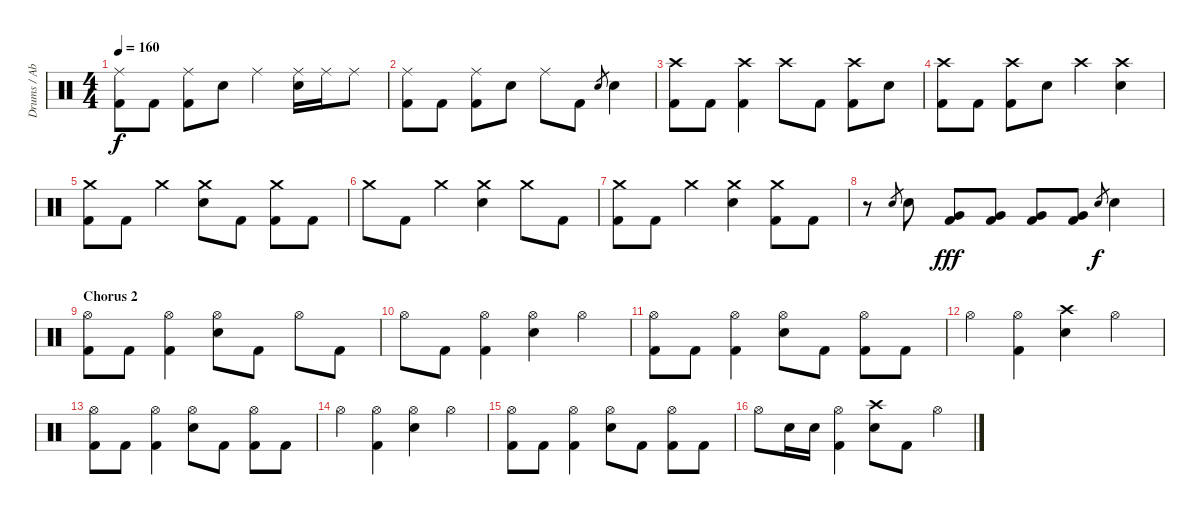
\track ("Drums / Abe Cunningham" "Drums / Ab") {instrument percussion}
\staff {score}
\articulation defaults
\ts (4 4)
\tempo 160
\clef neutral
\ks c
("Ride (middle)" "Kick (hit) 2").8{dy f} "Kick (hit) 2".8 ("Ride (middle)" "Kick (hit) 2").8 "Electric Snare (hit)".8 "Ride (middle)".4 ("Ride (middle)" "Electric Snare (hit)").16 "Ride (middle)".16 "Ride (middle)".8 |
("Ride (middle)" "Kick (hit) 2").8 "Kick (hit) 2".8 ("Ride (middle)" "Kick (hit) 2").8 "Electric Snare (hit)".8 "Ride (middle)".8 "Kick (hit) 2".8 "Electric Snare (hit)".8{gr} "Electric Snare (hit)".4 |
("Crash high (hit)" "Kick (hit) 2").8 "Kick (hit) 2".8 ("Crash high (hit)" "Kick (hit) 2").4 "Crash high (hit)".8 "Kick (hit) 2".8 ("Crash high (hit)" "Kick (hit) 2").8 "Electric Snare (hit)".8 |
("Crash high (hit)" "Kick (hit) 2").8 "Kick (hit) 2".8 ("Crash high (hit)" "Kick (hit) 2").8 "Electric Snare (hit)".8 "Crash high (hit)".4 ("Crash high (hit)" "Electric Snare (hit)").4 |
("Crash medium (hit)" "Kick (hit) 2").8 "Kick (hit) 2".8 "Crash medium (hit)".4 ("Crash medium (hit)" "Electric Snare (hit)").8 "Kick (hit) 2".8 ("Crash medium (hit)" "Kick (hit) 2").8 "Kick (hit) 2".8 |
"Crash medium (hit)".8 "Kick (hit) 2".8 "Crash medium (hit)".4 ("Crash medium (hit)" "Electric Snare (hit)").4 "Crash medium (hit)".8 "Kick (hit) 2".8 |
("Crash medium (hit)" "Kick (hit) 2").8 "Kick (hit) 2".8 "Crash medium (hit)".4 ("Crash medium (hit)" "Electric Snare (hit)").4 ("Crash medium (hit)" "Kick (hit) 2").8 "Kick (hit) 2".8 |
r.8 "Electric Snare (hit)".8{gr} "Electric Snare (hit)".8 ("Very Low Tom (hit)" "Kick (hit) 2").8{dy fff} ("Very Low Tom (hit)" "Kick (hit) 2").8 ("Very Low Tom (hit)" "Kick (hit) 2").8 ("Very Low Tom (hit)" "Kick (hit) 2").8 "Electric Snare (hit)".8{gr dy f} "Electric Snare (hit)".4 |
\section ("" "Chorus 2")
("Hi-Hat (open)" "Kick (hit) 2").8 "Kick (hit) 2".8 ("Hi-Hat (open)" "Kick (hit) 2").4 ("Hi-Hat (open)" "Electric Snare (hit)").8 "Kick (hit) 2".8 "Hi-Hat (open)".8 "Kick (hit) 2".8 |
"Hi-Hat (open)".8 "Kick (hit) 2".8 ("Hi-Hat (open)" "Kick (hit) 2").4 ("Hi-Hat (open)" "Electric Snare (hit)").4 "Hi-Hat (open)".4 |
("Hi-Hat (open)" "Kick (hit) 2").8 "Kick (hit) 2".8 ("Hi-Hat (open)" "Kick (hit) 2").4 ("Hi-Hat (open)" "Electric Snare (hit)").8 "Kick (hit) 2".8 ("Hi-Hat (open)" "Kick (hit) 2").8 "Kick (hit) 2".8 |
"Hi-Hat (open)".4 ("Hi-Hat (open)" "Kick (hit) 2").4 ("Crash high (hit)" "Electric Snare (hit)").4 "Hi-Hat (open)".4 |
("Hi-Hat (open)" "Kick (hit) 2").8 "Kick (hit) 2".8 ("Hi-Hat (open)" "Kick (hit) 2").4 ("Hi-Hat (open)" "Electric Snare (hit)").8 "Kick (hit) 2".8 ("Hi-Hat (open)" "Kick (hit) 2").8 "Kick (hit) 2".8 |
"Hi-Hat (open)".4 ("Hi-Hat (open)" "Kick (hit) 2").4 ("Hi-Hat (open)" "Electric Snare (hit)").4 "Hi-Hat (open)".4 |
("Hi-Hat (open)" "Kick (hit) 2").8 "Kick (hit) 2".8 ("Hi-Hat (open)" "Kick (hit) 2").4 ("Hi-Hat (open)" "Electric Snare (hit)").8 "Kick (hit) 2".8 ("Hi-Hat (open)" "Kick (hit) 2").8 "Kick (hit) 2".8 |
"Hi-Hat (open)".8 "Electric Snare (hit)".16 "Electric Snare (hit)".16 ("Hi-Hat (open)" "Kick (hit) 2").4 ("Crash high (hit)" "Electric Snare (hit)").8 "Kick (hit) 2".8 "Hi-Hat (open)".4
